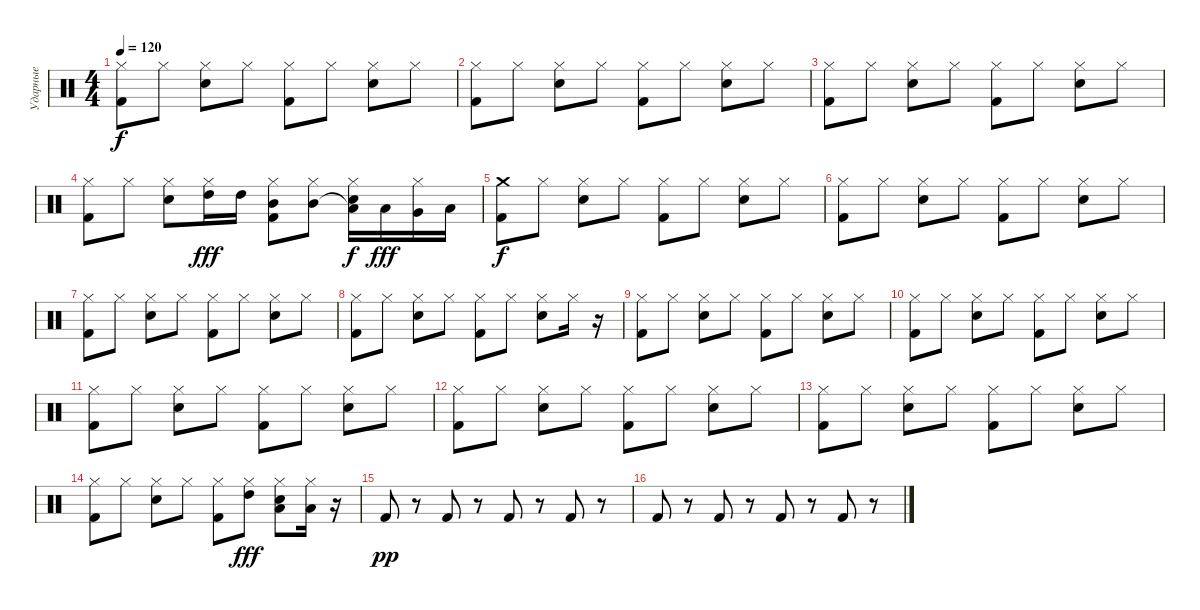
\track ("Ударные" "Ударные") {instrument percussion}
\staff {score}
\articulation defaults
\ts (4 4)
\tempo 120
\clef neutral
\ks c
("Kick (hit) 2" "Hi-Hat (closed)").8{dy f} "Hi-Hat (closed)".8 ("Electric Snare (hit)" "Hi-Hat (closed)").8 "Hi-Hat (closed)".8 ("Kick (hit) 2" "Hi-Hat (closed)").8 "Hi-Hat (closed)".8 ("Electric Snare (hit)" "Hi-Hat (closed)").8 "Hi-Hat (closed)".8 |
("Kick (hit) 2" "Hi-Hat (closed)").8 "Hi-Hat (closed)".8 ("Electric Snare (hit)" "Hi-Hat (closed)").8 "Hi-Hat (closed)".8 ("Kick (hit) 2" "Hi-Hat (closed)").8 "Hi-Hat (closed)".8 ("Electric Snare (hit)" "Hi-Hat (closed)").8 "Hi-Hat (closed)".8 |
("Kick (hit) 2" "Hi-Hat (closed)").8 "Hi-Hat (closed)".8 ("Electric Snare (hit)" "Hi-Hat (closed)").8 "Hi-Hat (closed)".8 ("Kick (hit) 2" "Hi-Hat (closed)").8 "Hi-Hat (closed)".8 ("Electric Snare (hit)" "Hi-Hat (closed)").8 "Hi-Hat (closed)".8 |
("Hi-Hat (closed)" "Kick (hit) 2").8 "Hi-Hat (closed)".8 ("Hi-Hat (closed)" "Electric Snare (hit)").8 ("High Tom (hit)" "Hi-Hat (closed)").16{dy fff} "High Tom (hit)".16 ("Mid Tom (hit)" "Hi-Hat (closed)" "Kick (hit) 2").8 ("Mid Tom (hit)" "Hi-Hat (closed)").8 ("Low Tom (hit)"{t} "Hi-Hat (closed)" "Electric Snare (hit)").16{dy f} "Low Tom (hit)".16{dy fff} ("Very Low Tom (hit)" "Hi-Hat (closed)").16 "Low Floor Tom (hit)".16 |
("Kick (hit) 2" "Crash medium (hit)").8{dy f} "Hi-Hat (closed)".8 ("Electric Snare (hit)" "Hi-Hat (closed)").8 "Hi-Hat (closed)".8 ("Kick (hit) 2" "Hi-Hat (closed)").8 "Hi-Hat (closed)".8 ("Electric Snare (hit)" "Hi-Hat (closed)").8 "Hi-Hat (closed)".8 |
("Kick (hit) 2" "Hi-Hat (closed)").8 "Hi-Hat (closed)".8 ("Electric Snare (hit)" "Hi-Hat (closed)").8 "Hi-Hat (closed)".8 ("Kick (hit) 2" "Hi-Hat (closed)").8 "Hi-Hat (closed)".8 ("Electric Snare (hit)" "Hi-Hat (closed)").8 "Hi-Hat (closed)".8 |
("Kick (hit) 2" "Hi-Hat (closed)").8 "Hi-Hat (closed)".8 ("Electric Snare (hit)" "Hi-Hat (closed)").8 "Hi-Hat (closed)".8 ("Kick (hit) 2" "Hi-Hat (closed)").8 "Hi-Hat (closed)".8 ("Electric Snare (hit)" "Hi-Hat (closed)").8 "Hi-Hat (closed)".8 |
("Kick (hit) 2" "Hi-Hat (closed)").8 "Hi-Hat (closed)".8 ("Electric Snare (hit)" "Hi-Hat (closed)").8 "Hi-Hat (closed)".8 ("Kick (hit) 2" "Hi-Hat (closed)").8 "Hi-Hat (closed)".8 ("Electric Snare (hit)" "Hi-Hat (closed)").8 "Hi-Hat (closed)".16 r.16 |
("Kick (hit) 2" "Hi-Hat (closed)").8 "Hi-Hat (closed)".8 ("Electric Snare (hit)" "Hi-Hat (closed)").8 "Hi-Hat (closed)".8 ("Kick (hit) 2" "Hi-Hat (closed)").8 "Hi-Hat (closed)".8 ("Electric Snare (hit)" "Hi-Hat (closed)").8 "Hi-Hat (closed)".8 |
("Kick (hit) 2" "Hi-Hat (closed)").8 "Hi-Hat (closed)".8 ("Electric Snare (hit)" "Hi-Hat (closed)").8 "Hi-Hat (closed)".8 ("Kick (hit) 2" "Hi-Hat (closed)").8 "Hi-Hat (closed)".8 ("Electric Snare (hit)" "Hi-Hat (closed)").8 "Hi-Hat (closed)".8 |
("Kick (hit) 2" "Hi-Hat (closed)").8 "Hi-Hat (closed)".8 ("Electric Snare (hit)" "Hi-Hat (closed)").8 "Hi-Hat (closed)".8 ("Kick (hit) 2" "Hi-Hat (closed)").8 "Hi-Hat (closed)".8 ("Electric Snare (hit)" "Hi-Hat (closed)").8 "Hi-Hat (closed)".8 |
("Kick (hit) 2" "Hi-Hat (closed)").8 "Hi-Hat (closed)".8 ("Electric Snare (hit)" "Hi-Hat (closed)").8 "Hi-Hat (closed)".8 ("Kick (hit) 2" "Hi-Hat (closed)").8 "Hi-Hat (closed)".8 ("Electric Snare (hit)" "Hi-Hat (closed)").8 "Hi-Hat (closed)".8 |
("Kick (hit) 2" "Hi-Hat (closed)").8 "Hi-Hat (closed)".8 ("Electric Snare (hit)" "Hi-Hat (closed)").8 "Hi-Hat (closed)".8 ("Kick (hit) 2" "Hi-Hat (closed)").8 "Hi-Hat (closed)".8 ("Electric Snare (hit)" "Hi-Hat (closed)").8 "Hi-Hat (closed)".8 |
("Kick (hit) 2" "Hi-Hat (closed)").8 "Hi-Hat (closed)".8 ("Electric Snare (hit)" "Hi-Hat (closed)").8 "Hi-Hat (closed)".8 ("Kick (hit) 2" "Hi-Hat (closed)").8 ("Hi-Hat (closed)" "High Tom (hit)").8{dy fff} ("Electric Snare (hit)" "Hi-Hat (closed)" "Low Tom (hit)").8 ("Hi-Hat (closed)" "Low Floor Tom (hit)").16 r.16 |
"Kick (hit) 2".8{dy pp} r.8 "Kick (hit) 2".8 r.8 "Kick (hit) 2".8 r.8 "Kick (hit) 2".8 r.8 |
"Kick (hit) 2".8 r.8 "Kick (hit) 2".8 r.8 "Kick (hit) 2".8 r.8 "Kick (hit) 2".8 r.8
